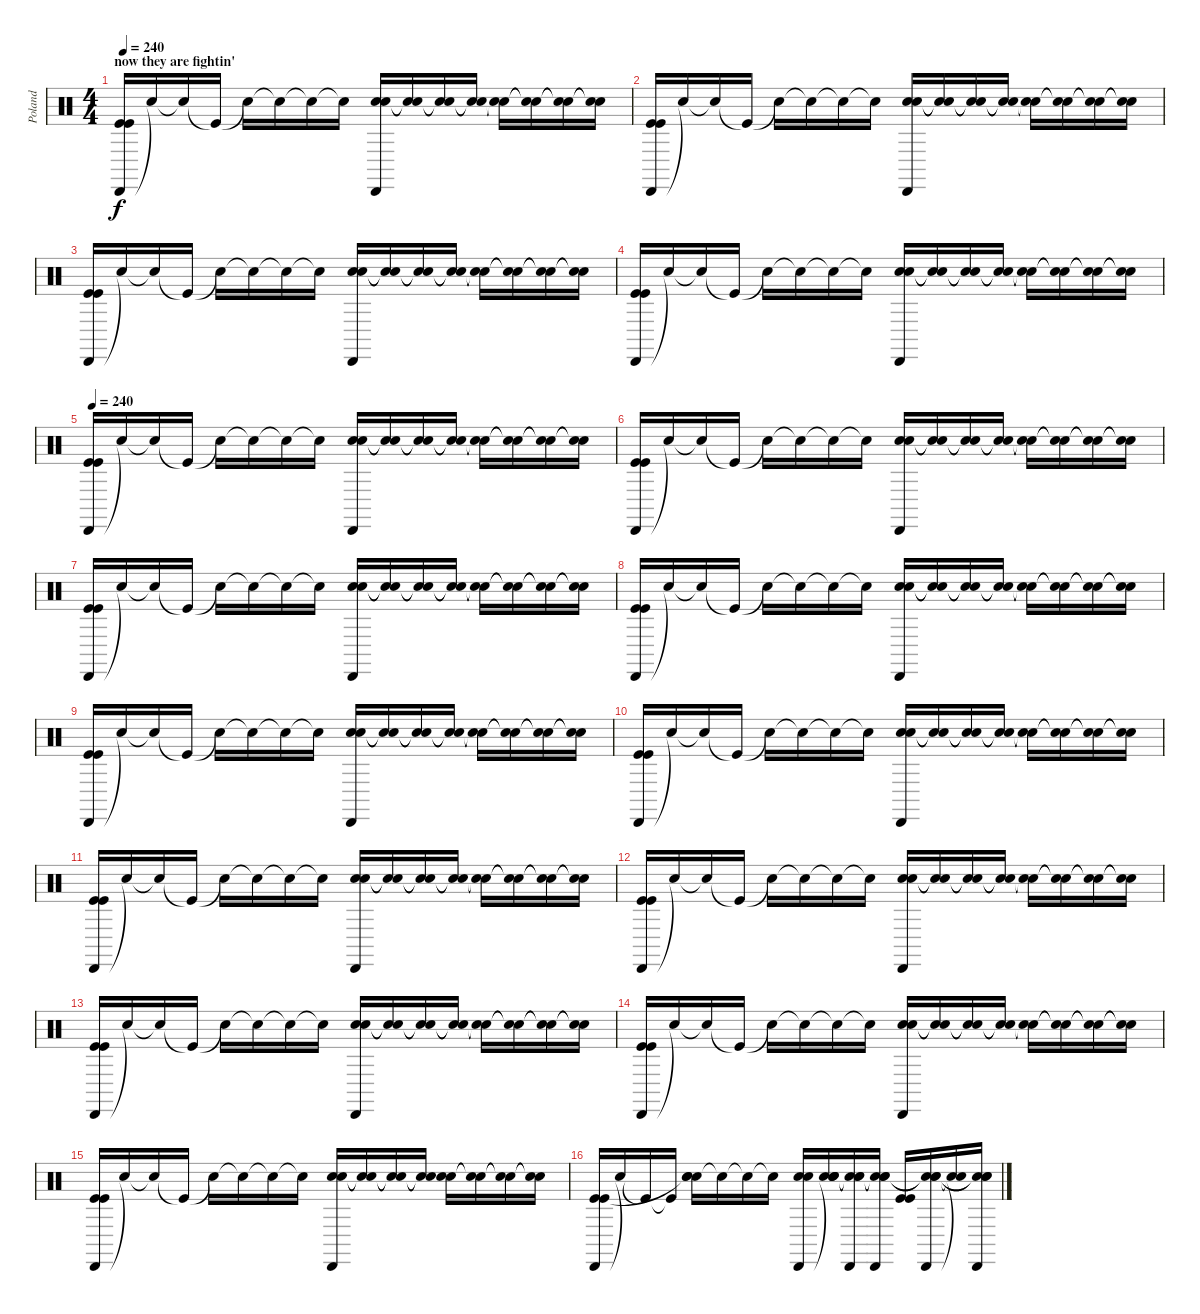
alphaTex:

\track ("Poland" "Poland") {instrument percussion}
\staff {score}
\articulation defaults
\ts (4 4)
\section ("" "now they are fightin'")
\tempo 240
\clef neutral
\ks c
("Cabasa (hit)" "Kick (hit)" "Kick (hit)").16{dy f} "Snare (hit)"{t}.16 "Snare (hit)"{t}.16 "Kick (hit)"{t}.16 "Snare (hit)"{t}.16 "Snare (hit)"{t}.16 "Snare (hit)"{t}.16 "Snare (hit)"{t}.16 ("Hand Clap (hit)" "Hand Clap (hit)" "Cabasa (hit)").16 ("Snare (hit)"{t} "Snare (hit)"{t}).16 ("Snare (hit)"{t} "Snare (hit)"{t}).16 ("Snare (hit)"{t} "Snare (hit)"{t}).16 ("Snare (hit)"{t} "Snare (hit)"{t}).16 ("Snare (hit)"{t} "Snare (hit)"{t}).16 ("Snare (hit)"{t} "Snare (hit)"{t}).16 ("Snare (hit)"{t} "Snare (hit)"{t}).16 |
("Cabasa (hit)" "Kick (hit)" "Kick (hit)").16 "Snare (hit)"{t}.16 "Snare (hit)"{t}.16 "Kick (hit)"{t}.16 "Snare (hit)"{t}.16 "Snare (hit)"{t}.16 "Snare (hit)"{t}.16 "Snare (hit)"{t}.16 ("Hand Clap (hit)" "Hand Clap (hit)" "Cabasa (hit)").16 ("Snare (hit)"{t} "Snare (hit)"{t}).16 ("Snare (hit)"{t} "Snare (hit)"{t}).16 ("Snare (hit)"{t} "Snare (hit)"{t}).16 ("Snare (hit)"{t} "Snare (hit)"{t}).16 ("Snare (hit)"{t} "Snare (hit)"{t}).16 ("Snare (hit)"{t} "Snare (hit)"{t}).16 ("Snare (hit)"{t} "Snare (hit)"{t}).16 |
("Cabasa (hit)" "Kick (hit)" "Kick (hit)").16 "Snare (hit)"{t}.16 "Snare (hit)"{t}.16 "Kick (hit)"{t}.16 "Snare (hit)"{t}.16 "Snare (hit)"{t}.16 "Snare (hit)"{t}.16 "Snare (hit)"{t}.16 ("Hand Clap (hit)" "Hand Clap (hit)" "Cabasa (hit)").16 ("Snare (hit)"{t} "Snare (hit)"{t}).16 ("Snare (hit)"{t} "Snare (hit)"{t}).16 ("Snare (hit)"{t} "Snare (hit)"{t}).16 ("Snare (hit)"{t} "Snare (hit)"{t}).16 ("Snare (hit)"{t} "Snare (hit)"{t}).16 ("Snare (hit)"{t} "Snare (hit)"{t}).16 ("Snare (hit)"{t} "Snare (hit)"{t}).16 |
("Cabasa (hit)" "Kick (hit)" "Kick (hit)").16 "Snare (hit)"{t}.16 "Snare (hit)"{t}.16 "Kick (hit)"{t}.16 "Snare (hit)"{t}.16 "Snare (hit)"{t}.16 "Snare (hit)"{t}.16 "Snare (hit)"{t}.16 ("Hand Clap (hit)" "Hand Clap (hit)" "Cabasa (hit)").16 ("Snare (hit)"{t} "Snare (hit)"{t}).16 ("Snare (hit)"{t} "Snare (hit)"{t}).16 ("Snare (hit)"{t} "Snare (hit)"{t}).16 ("Snare (hit)"{t} "Snare (hit)"{t}).16 ("Snare (hit)"{t} "Snare (hit)"{t}).16 ("Snare (hit)"{t} "Snare (hit)"{t}).16 ("Snare (hit)"{t} "Snare (hit)"{t}).16 |
\tempo 240
("Cabasa (hit)" "Kick (hit)" "Kick (hit)").16 "Snare (hit)"{t}.16 "Snare (hit)"{t}.16 "Kick (hit)"{t}.16 "Snare (hit)"{t}.16 "Snare (hit)"{t}.16 "Snare (hit)"{t}.16 "Snare (hit)"{t}.16 ("Hand Clap (hit)" "Hand Clap (hit)" "Cabasa (hit)").16 ("Snare (hit)"{t} "Snare (hit)"{t}).16 ("Snare (hit)"{t} "Snare (hit)"{t}).16 ("Snare (hit)"{t} "Snare (hit)"{t}).16 ("Snare (hit)"{t} "Snare (hit)"{t}).16 ("Snare (hit)"{t} "Snare (hit)"{t}).16 ("Snare (hit)"{t} "Snare (hit)"{t}).16 ("Snare (hit)"{t} "Snare (hit)"{t}).16 |
("Cabasa (hit)" "Kick (hit)" "Kick (hit)").16 "Snare (hit)"{t}.16 "Snare (hit)"{t}.16 "Kick (hit)"{t}.16 "Snare (hit)"{t}.16 "Snare (hit)"{t}.16 "Snare (hit)"{t}.16 "Snare (hit)"{t}.16 ("Hand Clap (hit)" "Hand Clap (hit)" "Cabasa (hit)").16 ("Snare (hit)"{t} "Snare (hit)"{t}).16 ("Snare (hit)"{t} "Snare (hit)"{t}).16 ("Snare (hit)"{t} "Snare (hit)"{t}).16 ("Snare (hit)"{t} "Snare (hit)"{t}).16 ("Snare (hit)"{t} "Snare (hit)"{t}).16 ("Snare (hit)"{t} "Snare (hit)"{t}).16 ("Snare (hit)"{t} "Snare (hit)"{t}).16 |
("Cabasa (hit)" "Kick (hit)" "Kick (hit)").16 "Snare (hit)"{t}.16 "Snare (hit)"{t}.16 "Kick (hit)"{t}.16 "Snare (hit)"{t}.16 "Snare (hit)"{t}.16 "Snare (hit)"{t}.16 "Snare (hit)"{t}.16 ("Hand Clap (hit)" "Hand Clap (hit)" "Cabasa (hit)").16 ("Snare (hit)"{t} "Snare (hit)"{t}).16 ("Snare (hit)"{t} "Snare (hit)"{t}).16 ("Snare (hit)"{t} "Snare (hit)"{t}).16 ("Snare (hit)"{t} "Snare (hit)"{t}).16 ("Snare (hit)"{t} "Snare (hit)"{t}).16 ("Snare (hit)"{t} "Snare (hit)"{t}).16 ("Snare (hit)"{t} "Snare (hit)"{t}).16 |
("Cabasa (hit)" "Kick (hit)" "Kick (hit)").16 "Snare (hit)"{t}.16 "Snare (hit)"{t}.16 "Kick (hit)"{t}.16 "Snare (hit)"{t}.16 "Snare (hit)"{t}.16 "Snare (hit)"{t}.16 "Snare (hit)"{t}.16 ("Hand Clap (hit)" "Hand Clap (hit)" "Cabasa (hit)").16 ("Snare (hit)"{t} "Snare (hit)"{t}).16 ("Snare (hit)"{t} "Snare (hit)"{t}).16 ("Snare (hit)"{t} "Snare (hit)"{t}).16 ("Snare (hit)"{t} "Snare (hit)"{t}).16 ("Snare (hit)"{t} "Snare (hit)"{t}).16 ("Snare (hit)"{t} "Snare (hit)"{t}).16 ("Snare (hit)"{t} "Snare (hit)"{t}).16 |
("Cabasa (hit)" "Kick (hit)" "Kick (hit)").16 "Snare (hit)"{t}.16 "Snare (hit)"{t}.16 "Kick (hit)"{t}.16 "Snare (hit)"{t}.16 "Snare (hit)"{t}.16 "Snare (hit)"{t}.16 "Snare (hit)"{t}.16 ("Hand Clap (hit)" "Hand Clap (hit)" "Cabasa (hit)").16 ("Snare (hit)"{t} "Snare (hit)"{t}).16 ("Snare (hit)"{t} "Snare (hit)"{t}).16 ("Snare (hit)"{t} "Snare (hit)"{t}).16 ("Snare (hit)"{t} "Snare (hit)"{t}).16 ("Snare (hit)"{t} "Snare (hit)"{t}).16 ("Snare (hit)"{t} "Snare (hit)"{t}).16 ("Snare (hit)"{t} "Snare (hit)"{t}).16 |
("Cabasa (hit)" "Kick (hit)" "Kick (hit)").16 "Snare (hit)"{t}.16 "Snare (hit)"{t}.16 "Kick (hit)"{t}.16 "Snare (hit)"{t}.16 "Snare (hit)"{t}.16 "Snare (hit)"{t}.16 "Snare (hit)"{t}.16 ("Hand Clap (hit)" "Hand Clap (hit)" "Cabasa (hit)").16 ("Snare (hit)"{t} "Snare (hit)"{t}).16 ("Snare (hit)"{t} "Snare (hit)"{t}).16 ("Snare (hit)"{t} "Snare (hit)"{t}).16 ("Snare (hit)"{t} "Snare (hit)"{t}).16 ("Snare (hit)"{t} "Snare (hit)"{t}).16 ("Snare (hit)"{t} "Snare (hit)"{t}).16 ("Snare (hit)"{t} "Snare (hit)"{t}).16 |
("Cabasa (hit)" "Kick (hit)" "Kick (hit)").16 "Snare (hit)"{t}.16 "Snare (hit)"{t}.16 "Kick (hit)"{t}.16 "Snare (hit)"{t}.16 "Snare (hit)"{t}.16 "Snare (hit)"{t}.16 "Snare (hit)"{t}.16 ("Hand Clap (hit)" "Hand Clap (hit)" "Cabasa (hit)").16 ("Snare (hit)"{t} "Snare (hit)"{t}).16 ("Snare (hit)"{t} "Snare (hit)"{t}).16 ("Snare (hit)"{t} "Snare (hit)"{t}).16 ("Snare (hit)"{t} "Snare (hit)"{t}).16 ("Snare (hit)"{t} "Snare (hit)"{t}).16 ("Snare (hit)"{t} "Snare (hit)"{t}).16 ("Snare (hit)"{t} "Snare (hit)"{t}).16 |
("Cabasa (hit)" "Kick (hit)" "Kick (hit)").16 "Snare (hit)"{t}.16 "Snare (hit)"{t}.16 "Kick (hit)"{t}.16 "Snare (hit)"{t}.16 "Snare (hit)"{t}.16 "Snare (hit)"{t}.16 "Snare (hit)"{t}.16 ("Hand Clap (hit)" "Hand Clap (hit)" "Cabasa (hit)").16 ("Snare (hit)"{t} "Snare (hit)"{t}).16 ("Snare (hit)"{t} "Snare (hit)"{t}).16 ("Snare (hit)"{t} "Snare (hit)"{t}).16 ("Snare (hit)"{t} "Snare (hit)"{t}).16 ("Snare (hit)"{t} "Snare (hit)"{t}).16 ("Snare (hit)"{t} "Snare (hit)"{t}).16 ("Snare (hit)"{t} "Snare (hit)"{t}).16 |
("Cabasa (hit)" "Kick (hit)" "Kick (hit)").16 "Snare (hit)"{t}.16 "Snare (hit)"{t}.16 "Kick (hit)"{t}.16 "Snare (hit)"{t}.16 "Snare (hit)"{t}.16 "Snare (hit)"{t}.16 "Snare (hit)"{t}.16 ("Hand Clap (hit)" "Hand Clap (hit)" "Cabasa (hit)").16 ("Snare (hit)"{t} "Snare (hit)"{t}).16 ("Snare (hit)"{t} "Snare (hit)"{t}).16 ("Snare (hit)"{t} "Snare (hit)"{t}).16 ("Snare (hit)"{t} "Snare (hit)"{t}).16 ("Snare (hit)"{t} "Snare (hit)"{t}).16 ("Snare (hit)"{t} "Snare (hit)"{t}).16 ("Snare (hit)"{t} "Snare (hit)"{t}).16 |
("Cabasa (hit)" "Kick (hit)" "Kick (hit)").16 "Snare (hit)"{t}.16 "Snare (hit)"{t}.16 "Kick (hit)"{t}.16 "Snare (hit)"{t}.16 "Snare (hit)"{t}.16 "Snare (hit)"{t}.16 "Snare (hit)"{t}.16 ("Hand Clap (hit)" "Hand Clap (hit)" "Cabasa (hit)").16 ("Snare (hit)"{t} "Snare (hit)"{t}).16 ("Snare (hit)"{t} "Snare (hit)"{t}).16 ("Snare (hit)"{t} "Snare (hit)"{t}).16 ("Snare (hit)"{t} "Snare (hit)"{t}).16 ("Snare (hit)"{t} "Snare (hit)"{t}).16 ("Snare (hit)"{t} "Snare (hit)"{t}).16 ("Snare (hit)"{t} "Snare (hit)"{t}).16 |
("Cabasa (hit)" "Kick (hit)" "Kick (hit)").16{volume 14} "Snare (hit)"{t}.16 "Snare (hit)"{t}.16 "Kick (hit)"{t}.16 "Snare (hit)"{t}.16 "Snare (hit)"{t}.16 "Snare (hit)"{t}.16 "Snare (hit)"{t}.16 ("Hand Clap (hit)" "Hand Clap (hit)" "Cabasa (hit)").16 ("Snare (hit)"{t} "Snare (hit)"{t}).16 ("Snare (hit)"{t} "Snare (hit)"{t}).16 ("Snare (hit)"{t} "Snare (hit)"{t}).16 ("Snare (hit)"{t} "Snare (hit)"{t}).16 ("Snare (hit)"{t} "Snare (hit)"{t}).16 ("Snare (hit)"{t} "Snare (hit)"{t}).16 ("Snare (hit)"{t} "Snare (hit)"{t}).16 |
("Cabasa (hit)" "Kick (hit)" "Kick (hit)").16 "Snare (hit)"{t}.16 "Kick (hit)"{t}.16 "Kick (hit)"{t}.16 ("Hand Clap (hit)" "Hand Clap (hit)" "Snare (hit)"{t}).16 "Snare (hit)"{t}.16 "Snare (hit)"{t}.16 "Snare (hit)"{t}.16 ("Hand Clap (hit)" "Hand Clap (hit)" "Cabasa (hit)").16 ("Hand Clap (hit)" "Hand Clap (hit)" "Snare (hit)"{t} "Snare (hit)").16 ("Hand Clap (hit)" "Cabasa (hit)" "Snare (hit)"{t} "Snare (hit)"{t}).16 ("Hand Clap (hit)" "Cabasa (hit)" "Snare (hit)"{t} "Snare (hit)"{t}).16 ("Kick (hit)" "Kick (hit)").16 ("Hand Clap (hit)" "Cabasa (hit)" "Snare (hit)"{t} "Snare (hit)"{t}).16 ("Snare (hit)"{t} "Snare (hit)"{t}).16 ("Hand Clap (hit)" "Cabasa (hit)" "Snare (hit)"{t} "Snare (hit)"{t}).16
